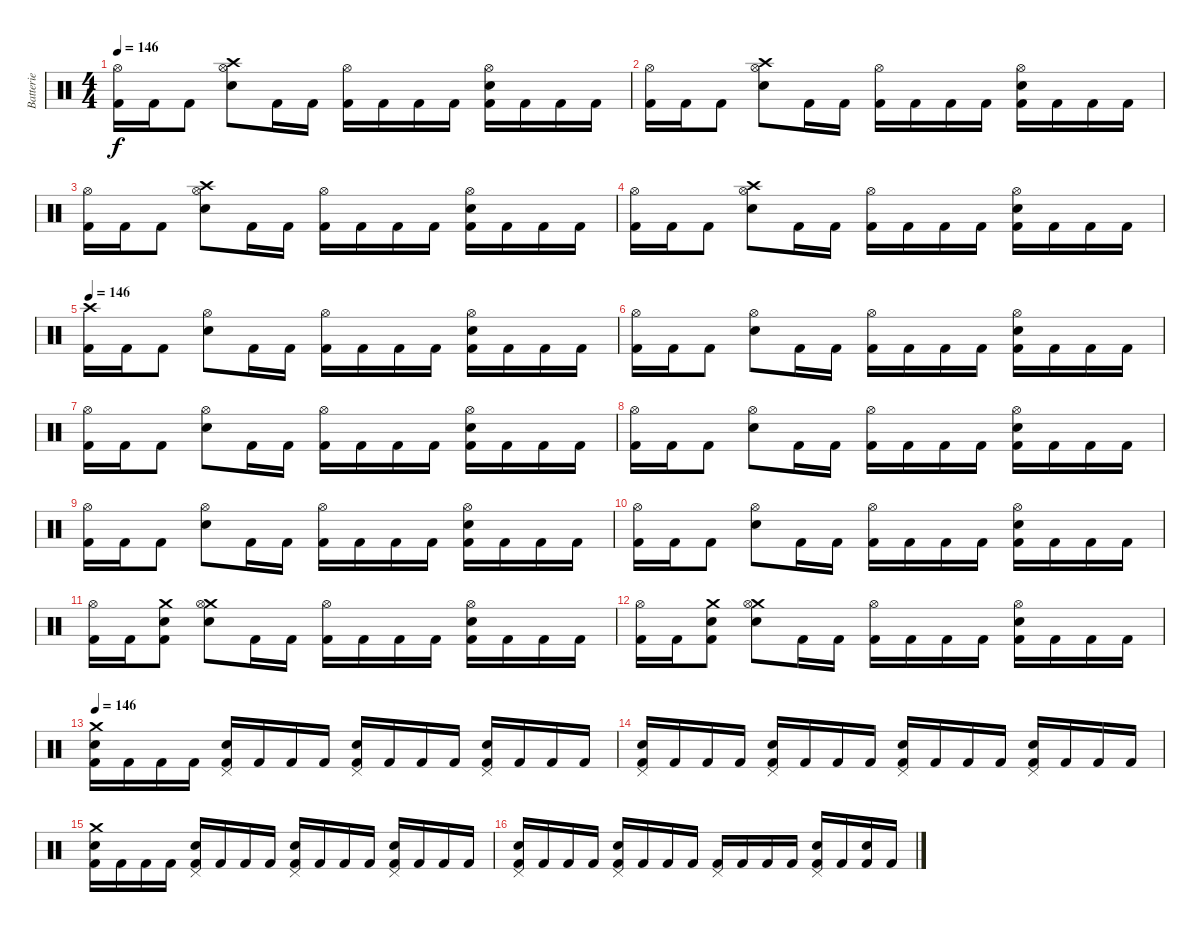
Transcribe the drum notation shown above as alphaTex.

\track ("Batterie" "Batterie") {instrument percussion}
\staff {score}
\articulation defaults
\ts (4 4)
\tempo 146
\clef neutral
\ks c
("Hi-Hat (open)" "Kick (hit) 2").16{dy f} "Kick (hit) 2".16 "Kick (hit) 2".8 ("Crash high (hit)" "Hi-Hat (open)" "Electric Snare (hit)").8 "Kick (hit) 2".16 "Kick (hit) 2".16 ("Hi-Hat (open)" "Kick (hit) 2").16 "Kick (hit) 2".16 "Kick (hit) 2".16 "Kick (hit) 2".16 ("Electric Snare (hit)" "Hi-Hat (open)" "Kick (hit) 2").16 "Kick (hit) 2".16 "Kick (hit) 2".16 "Kick (hit) 2".16 |
("Hi-Hat (open)" "Kick (hit) 2").16 "Kick (hit) 2".16 "Kick (hit) 2".8 ("Crash high (hit)" "Hi-Hat (open)" "Electric Snare (hit)").8 "Kick (hit) 2".16 "Kick (hit) 2".16 ("Hi-Hat (open)" "Kick (hit) 2").16 "Kick (hit) 2".16 "Kick (hit) 2".16 "Kick (hit) 2".16 ("Electric Snare (hit)" "Hi-Hat (open)" "Kick (hit) 2").16 "Kick (hit) 2".16 "Kick (hit) 2".16 "Kick (hit) 2".16 |
("Hi-Hat (open)" "Kick (hit) 2").16 "Kick (hit) 2".16 "Kick (hit) 2".8 ("Crash high (hit)" "Hi-Hat (open)" "Electric Snare (hit)").8 "Kick (hit) 2".16 "Kick (hit) 2".16 ("Hi-Hat (open)" "Kick (hit) 2").16 "Kick (hit) 2".16 "Kick (hit) 2".16 "Kick (hit) 2".16 ("Electric Snare (hit)" "Hi-Hat (open)" "Kick (hit) 2").16 "Kick (hit) 2".16 "Kick (hit) 2".16 "Kick (hit) 2".16 |
("Hi-Hat (open)" "Kick (hit) 2").16 "Kick (hit) 2".16 "Kick (hit) 2".8 ("Crash high (hit)" "Hi-Hat (open)" "Electric Snare (hit)").8 "Kick (hit) 2".16 "Kick (hit) 2".16 ("Hi-Hat (open)" "Kick (hit) 2").16 "Kick (hit) 2".16 "Kick (hit) 2".16 "Kick (hit) 2".16 ("Electric Snare (hit)" "Hi-Hat (open)" "Kick (hit) 2").16 "Kick (hit) 2".16 "Kick (hit) 2".16 "Kick (hit) 2".16 |
\tempo 146
("Crash high (hit)" "Kick (hit) 2").16 "Kick (hit) 2".16 "Kick (hit) 2".8 ("Hi-Hat (open)" "Electric Snare (hit)").8 "Kick (hit) 2".16 "Kick (hit) 2".16 ("Hi-Hat (open)" "Kick (hit) 2").16 "Kick (hit) 2".16 "Kick (hit) 2".16 "Kick (hit) 2".16 ("Electric Snare (hit)" "Hi-Hat (open)" "Kick (hit) 2").16 "Kick (hit) 2".16 "Kick (hit) 2".16 "Kick (hit) 2".16 |
("Hi-Hat (open)" "Kick (hit) 2").16 "Kick (hit) 2".16 "Kick (hit) 2".8 ("Hi-Hat (open)" "Electric Snare (hit)").8 "Kick (hit) 2".16 "Kick (hit) 2".16 ("Hi-Hat (open)" "Kick (hit) 2").16 "Kick (hit) 2".16 "Kick (hit) 2".16 "Kick (hit) 2".16 ("Electric Snare (hit)" "Hi-Hat (open)" "Kick (hit) 2").16 "Kick (hit) 2".16 "Kick (hit) 2".16 "Kick (hit) 2".16 |
("Hi-Hat (open)" "Kick (hit) 2").16 "Kick (hit) 2".16 "Kick (hit) 2".8 ("Hi-Hat (open)" "Electric Snare (hit)").8 "Kick (hit) 2".16 "Kick (hit) 2".16 ("Hi-Hat (open)" "Kick (hit) 2").16 "Kick (hit) 2".16 "Kick (hit) 2".16 "Kick (hit) 2".16 ("Electric Snare (hit)" "Hi-Hat (open)" "Kick (hit) 2").16 "Kick (hit) 2".16 "Kick (hit) 2".16 "Kick (hit) 2".16 |
("Hi-Hat (open)" "Kick (hit) 2").16 "Kick (hit) 2".16 "Kick (hit) 2".8 ("Hi-Hat (open)" "Electric Snare (hit)").8 "Kick (hit) 2".16 "Kick (hit) 2".16 ("Hi-Hat (open)" "Kick (hit) 2").16 "Kick (hit) 2".16 "Kick (hit) 2".16 "Kick (hit) 2".16 ("Electric Snare (hit)" "Hi-Hat (open)" "Kick (hit) 2").16 "Kick (hit) 2".16 "Kick (hit) 2".16 "Kick (hit) 2".16 |
("Hi-Hat (open)" "Kick (hit) 2").16 "Kick (hit) 2".16 "Kick (hit) 2".8 ("Hi-Hat (open)" "Electric Snare (hit)").8 "Kick (hit) 2".16 "Kick (hit) 2".16 ("Hi-Hat (open)" "Kick (hit) 2").16 "Kick (hit) 2".16 "Kick (hit) 2".16 "Kick (hit) 2".16 ("Electric Snare (hit)" "Hi-Hat (open)" "Kick (hit) 2").16 "Kick (hit) 2".16 "Kick (hit) 2".16 "Kick (hit) 2".16 |
("Hi-Hat (open)" "Kick (hit) 2").16 "Kick (hit) 2".16 "Kick (hit) 2".8 ("Hi-Hat (open)" "Electric Snare (hit)").8 "Kick (hit) 2".16 "Kick (hit) 2".16 ("Hi-Hat (open)" "Kick (hit) 2").16 "Kick (hit) 2".16 "Kick (hit) 2".16 "Kick (hit) 2".16 ("Electric Snare (hit)" "Hi-Hat (open)" "Kick (hit) 2").16 "Kick (hit) 2".16 "Kick (hit) 2".16 "Kick (hit) 2".16 |
("Hi-Hat (open)" "Kick (hit) 2").16 "Kick (hit) 2".16 ("Crash medium (hit)" "Electric Snare (hit)" "Kick (hit) 2").8 ("Crash medium (hit)" "Hi-Hat (open)" "Electric Snare (hit)").8 "Kick (hit) 2".16 "Kick (hit) 2".16 ("Hi-Hat (open)" "Kick (hit) 2").16 "Kick (hit) 2".16 "Kick (hit) 2".16 "Kick (hit) 2".16 ("Electric Snare (hit)" "Hi-Hat (open)" "Kick (hit) 2").16 "Kick (hit) 2".16 "Kick (hit) 2".16 "Kick (hit) 2".16 |
("Hi-Hat (open)" "Kick (hit) 2").16 "Kick (hit) 2".16 ("Crash medium (hit)" "Electric Snare (hit)" "Kick (hit) 2").8 ("Crash medium (hit)" "Hi-Hat (open)" "Electric Snare (hit)").8 "Kick (hit) 2".16 "Kick (hit) 2".16 ("Hi-Hat (open)" "Kick (hit) 2").16 "Kick (hit) 2".16 "Kick (hit) 2".16 "Kick (hit) 2".16 ("Electric Snare (hit)" "Hi-Hat (open)" "Kick (hit) 2").16 "Kick (hit) 2".16 "Kick (hit) 2".16 "Kick (hit) 2".16 |
\tempo 146
("Crash medium (hit)" "Electric Snare (hit)" "Kick (hit) 2").16 "Kick (hit) 2".16 "Kick (hit) 2".16 "Kick (hit) 2".16 ("Pedal Hi-Hat (hit)" "Electric Snare (hit)" "Kick (hit) 2").16 "Kick (hit) 2".16 "Kick (hit) 2".16 "Kick (hit) 2".16 ("Pedal Hi-Hat (hit)" "Electric Snare (hit)" "Kick (hit) 2").16 "Kick (hit) 2".16 "Kick (hit) 2".16 "Kick (hit) 2".16 ("Pedal Hi-Hat (hit)" "Electric Snare (hit)" "Kick (hit) 2").16 "Kick (hit) 2".16 "Kick (hit) 2".16 "Kick (hit) 2".16 |
("Pedal Hi-Hat (hit)" "Electric Snare (hit)" "Kick (hit) 2").16 "Kick (hit) 2".16 "Kick (hit) 2".16 "Kick (hit) 2".16 ("Pedal Hi-Hat (hit)" "Electric Snare (hit)" "Kick (hit) 2").16 "Kick (hit) 2".16 "Kick (hit) 2".16 "Kick (hit) 2".16 ("Pedal Hi-Hat (hit)" "Electric Snare (hit)" "Kick (hit) 2").16 "Kick (hit) 2".16 "Kick (hit) 2".16 "Kick (hit) 2".16 ("Pedal Hi-Hat (hit)" "Electric Snare (hit)" "Kick (hit) 2").16 "Kick (hit) 2".16 "Kick (hit) 2".16 "Kick (hit) 2".16 |
("Crash medium (hit)" "Electric Snare (hit)" "Kick (hit) 2").16 "Kick (hit) 2".16 "Kick (hit) 2".16 "Kick (hit) 2".16 ("Pedal Hi-Hat (hit)" "Electric Snare (hit)" "Kick (hit) 2").16 "Kick (hit) 2".16 "Kick (hit) 2".16 "Kick (hit) 2".16 ("Pedal Hi-Hat (hit)" "Electric Snare (hit)" "Kick (hit) 2").16 "Kick (hit) 2".16 "Kick (hit) 2".16 "Kick (hit) 2".16 ("Pedal Hi-Hat (hit)" "Electric Snare (hit)" "Kick (hit) 2").16 "Kick (hit) 2".16 "Kick (hit) 2".16 "Kick (hit) 2".16 |
("Pedal Hi-Hat (hit)" "Electric Snare (hit)" "Kick (hit) 2").16 "Kick (hit) 2".16 "Kick (hit) 2".16 "Kick (hit) 2".16 ("Pedal Hi-Hat (hit)" "Electric Snare (hit)" "Kick (hit) 2").16 "Kick (hit) 2".16 "Kick (hit) 2".16 "Kick (hit) 2".16 ("Pedal Hi-Hat (hit)" "Kick (hit) 2").16 "Kick (hit) 2".16 "Kick (hit) 2".16 "Kick (hit) 2".16 ("Pedal Hi-Hat (hit)" "Electric Snare (hit)" "Kick (hit) 2").16 "Kick (hit) 2".16 ("Electric Snare (hit)" "Kick (hit) 2").16 "Kick (hit) 2".16
